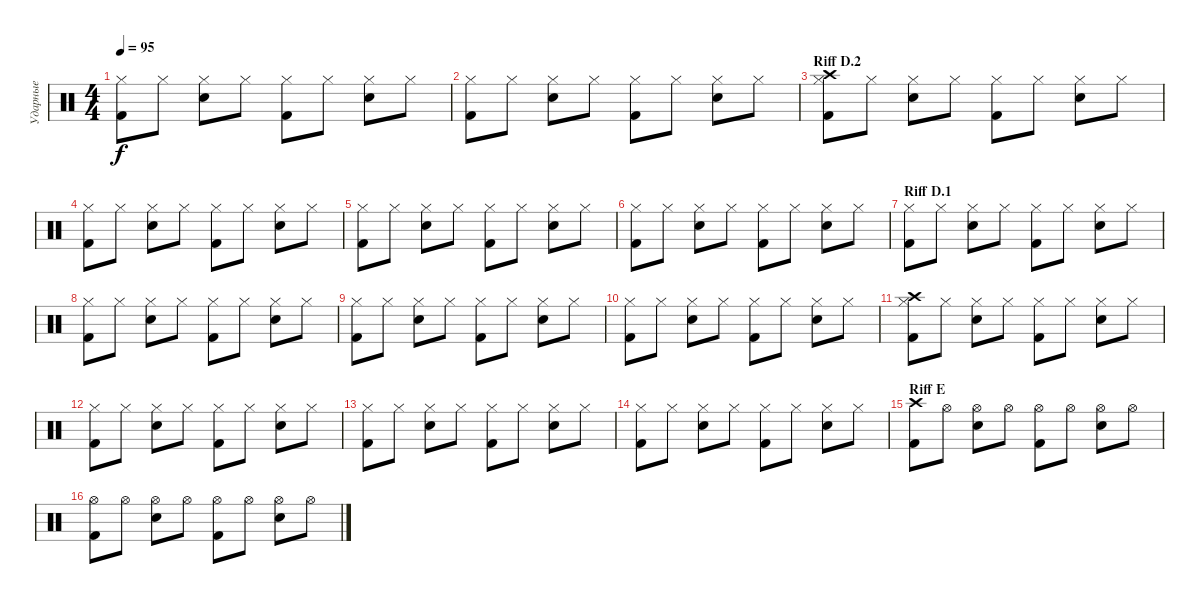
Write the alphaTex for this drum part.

\track ("Ударные" "Ударные") {instrument percussion}
\staff {score}
\articulation defaults
\ts (4 4)
\tempo 95
\clef neutral
\ks c
("Hi-Hat (closed)" "Kick (hit) 2").8{dy f} "Hi-Hat (closed)".8 ("Hi-Hat (closed)" "Snare (hit) 2").8 "Hi-Hat (closed)".8 ("Hi-Hat (closed)" "Kick (hit) 2").8 "Hi-Hat (closed)".8 ("Hi-Hat (closed)" "Snare (hit) 2").8 "Hi-Hat (closed)".8 |
("Hi-Hat (closed)" "Kick (hit) 2").8 "Hi-Hat (closed)".8 ("Hi-Hat (closed)" "Snare (hit) 2").8 "Hi-Hat (closed)".8 ("Hi-Hat (closed)" "Kick (hit) 2").8 "Hi-Hat (closed)".8 ("Hi-Hat (closed)" "Snare (hit) 2").8 "Hi-Hat (closed)".8 |
\section ("" "Riff D.2")
("Crash high (hit)" "Hi-Hat (closed)" "Kick (hit) 2").8 "Hi-Hat (closed)".8 ("Hi-Hat (closed)" "Snare (hit) 2").8 "Hi-Hat (closed)".8 ("Hi-Hat (closed)" "Kick (hit) 2").8 "Hi-Hat (closed)".8 ("Hi-Hat (closed)" "Snare (hit) 2").8 "Hi-Hat (closed)".8 |
("Hi-Hat (closed)" "Kick (hit) 2").8 "Hi-Hat (closed)".8 ("Hi-Hat (closed)" "Snare (hit) 2").8 "Hi-Hat (closed)".8 ("Hi-Hat (closed)" "Kick (hit) 2").8 "Hi-Hat (closed)".8 ("Hi-Hat (closed)" "Snare (hit) 2").8 "Hi-Hat (closed)".8 |
("Hi-Hat (closed)" "Kick (hit) 2").8 "Hi-Hat (closed)".8 ("Hi-Hat (closed)" "Snare (hit) 2").8 "Hi-Hat (closed)".8 ("Hi-Hat (closed)" "Kick (hit) 2").8 "Hi-Hat (closed)".8 ("Hi-Hat (closed)" "Snare (hit) 2").8 "Hi-Hat (closed)".8 |
("Hi-Hat (closed)" "Kick (hit) 2").8 "Hi-Hat (closed)".8 ("Hi-Hat (closed)" "Snare (hit) 2").8 "Hi-Hat (closed)".8 ("Hi-Hat (closed)" "Kick (hit) 2").8 "Hi-Hat (closed)".8 ("Hi-Hat (closed)" "Snare (hit) 2").8 "Hi-Hat (closed)".8 |
\section ("" "Riff D.1")
("Hi-Hat (closed)" "Kick (hit) 2").8 "Hi-Hat (closed)".8 ("Hi-Hat (closed)" "Snare (hit) 2").8 "Hi-Hat (closed)".8 ("Hi-Hat (closed)" "Kick (hit) 2").8 "Hi-Hat (closed)".8 ("Hi-Hat (closed)" "Snare (hit) 2").8 "Hi-Hat (closed)".8 |
("Hi-Hat (closed)" "Kick (hit) 2").8 "Hi-Hat (closed)".8 ("Hi-Hat (closed)" "Snare (hit) 2").8 "Hi-Hat (closed)".8 ("Hi-Hat (closed)" "Kick (hit) 2").8 "Hi-Hat (closed)".8 ("Hi-Hat (closed)" "Snare (hit) 2").8 "Hi-Hat (closed)".8 |
("Hi-Hat (closed)" "Kick (hit) 2").8 "Hi-Hat (closed)".8 ("Hi-Hat (closed)" "Snare (hit) 2").8 "Hi-Hat (closed)".8 ("Hi-Hat (closed)" "Kick (hit) 2").8 "Hi-Hat (closed)".8 ("Hi-Hat (closed)" "Snare (hit) 2").8 "Hi-Hat (closed)".8 |
("Hi-Hat (closed)" "Kick (hit) 2").8 "Hi-Hat (closed)".8 ("Hi-Hat (closed)" "Snare (hit) 2").8 "Hi-Hat (closed)".8 ("Hi-Hat (closed)" "Kick (hit) 2").8 "Hi-Hat (closed)".8 ("Hi-Hat (closed)" "Snare (hit) 2").8 "Hi-Hat (closed)".8 |
("Crash high (hit)" "Hi-Hat (closed)" "Kick (hit) 2").8 "Hi-Hat (closed)".8 ("Hi-Hat (closed)" "Snare (hit) 2").8 "Hi-Hat (closed)".8 ("Hi-Hat (closed)" "Kick (hit) 2").8 "Hi-Hat (closed)".8 ("Hi-Hat (closed)" "Snare (hit) 2").8 "Hi-Hat (closed)".8 |
("Hi-Hat (closed)" "Kick (hit) 2").8 "Hi-Hat (closed)".8 ("Hi-Hat (closed)" "Snare (hit) 2").8 "Hi-Hat (closed)".8 ("Hi-Hat (closed)" "Kick (hit) 2").8 "Hi-Hat (closed)".8 ("Hi-Hat (closed)" "Snare (hit) 2").8 "Hi-Hat (closed)".8 |
("Hi-Hat (closed)" "Kick (hit) 2").8 "Hi-Hat (closed)".8 ("Hi-Hat (closed)" "Snare (hit) 2").8 "Hi-Hat (closed)".8 ("Hi-Hat (closed)" "Kick (hit) 2").8 "Hi-Hat (closed)".8 ("Hi-Hat (closed)" "Snare (hit) 2").8 "Hi-Hat (closed)".8 |
("Hi-Hat (closed)" "Kick (hit) 2").8 "Hi-Hat (closed)".8 ("Hi-Hat (closed)" "Snare (hit) 2").8 "Hi-Hat (closed)".8 ("Hi-Hat (closed)" "Kick (hit) 2").8 "Hi-Hat (closed)".8 ("Hi-Hat (closed)" "Snare (hit) 2").8 "Hi-Hat (closed)".8 |
\section ("" "Riff E")
("Crash high (hit)" "Kick (hit) 2").8 "Hi-Hat (open)".8 ("Hi-Hat (open)" "Snare (hit) 2").8 "Hi-Hat (open)".8 ("Hi-Hat (open)" "Kick (hit) 2").8 "Hi-Hat (open)".8 ("Hi-Hat (open)" "Snare (hit) 2").8 "Hi-Hat (open)".8 |
("Hi-Hat (open)" "Kick (hit) 2").8 "Hi-Hat (open)".8 ("Hi-Hat (open)" "Snare (hit) 2").8 "Hi-Hat (open)".8 ("Hi-Hat (open)" "Kick (hit) 2").8 "Hi-Hat (open)".8 ("Hi-Hat (open)" "Snare (hit) 2").8 "Hi-Hat (open)".8
